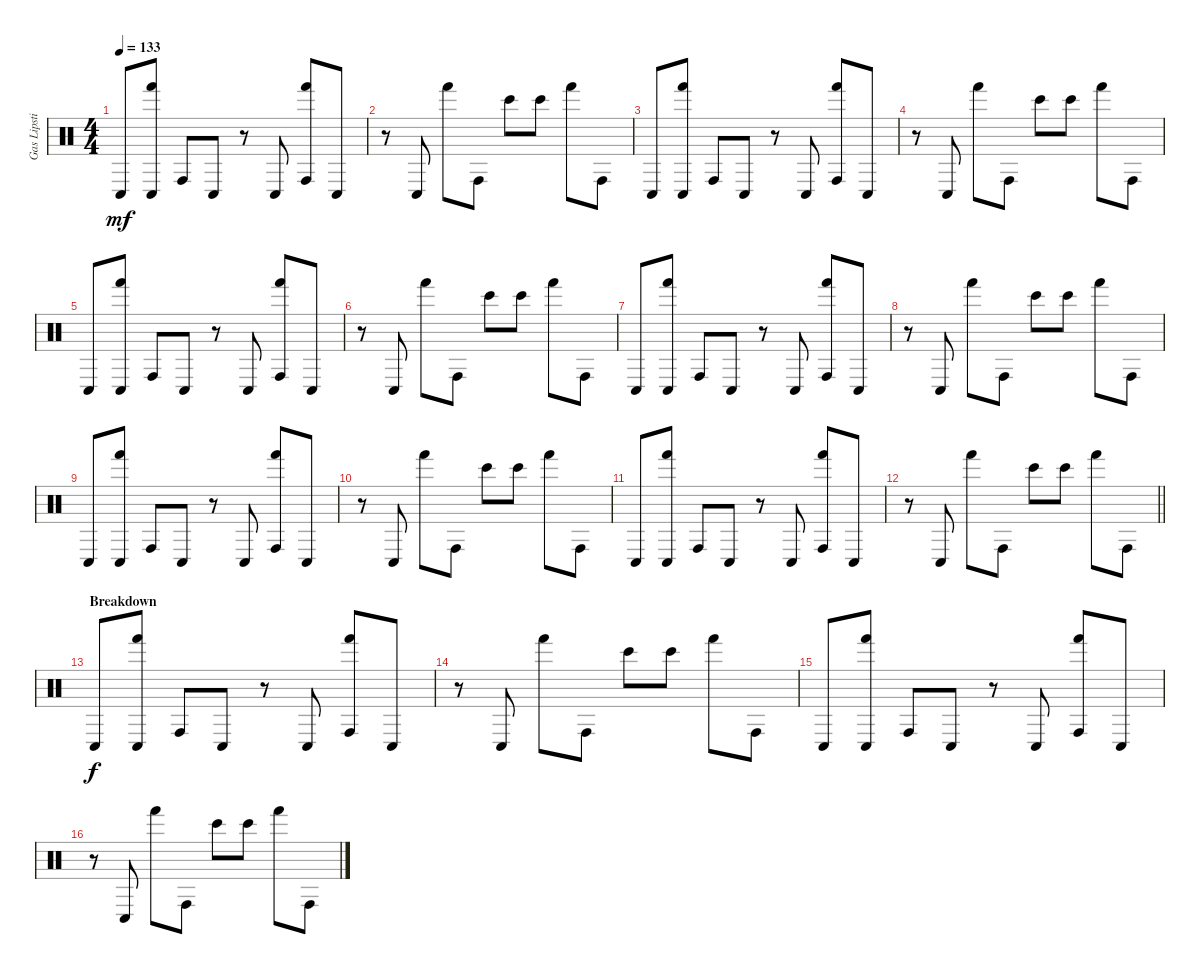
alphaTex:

\track ("Gas Lipstick (Drums)" "Gas Lipsti") {instrument percussion}
\staff {score}
\articulation defaults
\ts (4 4)
\tempo 133
\clef neutral
\ks c "Conga low (hit)".8{dy mf}
("Hand (hit)" "Conga low (hit)").8 "Conga high (hit)".8 "Conga low (hit)".8 r.8 "Conga low (hit)".8 ("Hand (hit)" "Conga high (hit)").8 "Conga low (hit)".8 |
r.8 "Conga low (hit)".8 "Hand (hit)".8 "Conga high (hit)".8 "Bongo High (hit)".8 "Bongo High (hit)".8 "Hand (hit)".8 "Conga high (hit)".8 |
"Conga low (hit)".8 ("Hand (hit)" "Conga low (hit)").8 "Conga high (hit)".8 "Conga low (hit)".8 r.8 "Conga low (hit)".8 ("Hand (hit)" "Conga high (hit)").8 "Conga low (hit)".8 |
r.8 "Conga low (hit)".8 "Hand (hit)".8 "Conga high (hit)".8 "Bongo High (hit)".8 "Bongo High (hit)".8 "Hand (hit)".8 "Conga high (hit)".8 |
"Conga low (hit)".8 ("Hand (hit)" "Conga low (hit)").8 "Conga high (hit)".8 "Conga low (hit)".8 r.8 "Conga low (hit)".8 ("Hand (hit)" "Conga high (hit)").8 "Conga low (hit)".8 |
r.8 "Conga low (hit)".8 "Hand (hit)".8 "Conga high (hit)".8 "Bongo High (hit)".8 "Bongo High (hit)".8 "Hand (hit)".8 "Conga high (hit)".8 |
"Conga low (hit)".8 ("Hand (hit)" "Conga low (hit)").8 "Conga high (hit)".8 "Conga low (hit)".8 r.8 "Conga low (hit)".8 ("Hand (hit)" "Conga high (hit)").8 "Conga low (hit)".8 |
r.8 "Conga low (hit)".8 "Hand (hit)".8 "Conga high (hit)".8 "Bongo High (hit)".8 "Bongo High (hit)".8 "Hand (hit)".8 "Conga high (hit)".8 |
"Conga low (hit)".8 ("Hand (hit)" "Conga low (hit)").8 "Conga high (hit)".8 "Conga low (hit)".8 r.8 "Conga low (hit)".8 ("Hand (hit)" "Conga high (hit)").8 "Conga low (hit)".8 |
r.8 "Conga low (hit)".8 "Hand (hit)".8 "Conga high (hit)".8 "Bongo High (hit)".8 "Bongo High (hit)".8 "Hand (hit)".8 "Conga high (hit)".8 |
"Conga low (hit)".8 ("Hand (hit)" "Conga low (hit)").8 "Conga high (hit)".8 "Conga low (hit)".8 r.8 "Conga low (hit)".8 ("Hand (hit)" "Conga high (hit)").8 "Conga low (hit)".8 |
\barLineRight lightlight
r.8 "Conga low (hit)".8 "Hand (hit)".8 "Conga high (hit)".8 "Bongo High (hit)".8 "Bongo High (hit)".8 "Hand (hit)".8 "Conga high (hit)".8 |
\section ("" "Breakdown")
"Conga low (hit)".8{dy f} ("Hand (hit)" "Conga low (hit)").8 "Conga high (hit)".8 "Conga low (hit)".8 r.8 "Conga low (hit)".8 ("Hand (hit)" "Conga high (hit)").8 "Conga low (hit)".8 |
r.8 "Conga low (hit)".8 "Hand (hit)".8 "Conga high (hit)".8 "Bongo High (hit)".8 "Bongo High (hit)".8 "Hand (hit)".8 "Conga high (hit)".8 |
"Conga low (hit)".8 ("Hand (hit)" "Conga low (hit)").8 "Conga high (hit)".8 "Conga low (hit)".8 r.8 "Conga low (hit)".8 ("Hand (hit)" "Conga high (hit)").8 "Conga low (hit)".8 |
r.8 "Conga low (hit)".8 "Hand (hit)".8 "Conga high (hit)".8 "Bongo High (hit)".8 "Bongo High (hit)".8 "Hand (hit)".8 "Conga high (hit)".8
